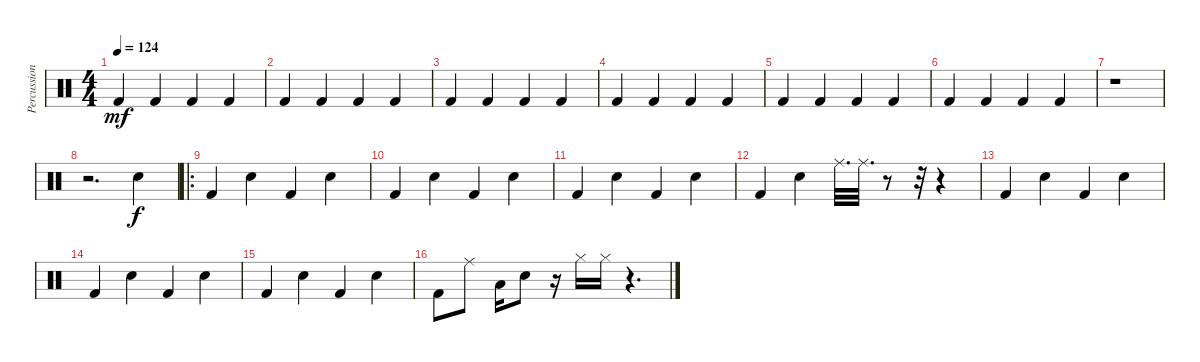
\track ("Percussion" "Percussion") {instrument percussion}
\staff {score}
\articulation defaults
\ts (4 4)
\tempo 124
\clef neutral
\ks c "Kick (hit) 2".4{dy mf} "Kick (hit) 2".4 "Kick (hit) 2".4 "Kick (hit) 2".4
|
"Kick (hit) 2".4 "Kick (hit) 2".4 "Kick (hit) 2".4 "Kick (hit) 2".4 |
"Kick (hit) 2".4 "Kick (hit) 2".4 "Kick (hit) 2".4 "Kick (hit) 2".4 |
"Kick (hit) 2".4 "Kick (hit) 2".4 "Kick (hit) 2".4 "Kick (hit) 2".4 |
"Kick (hit) 2".4 "Kick (hit) 2".4 "Kick (hit) 2".4 "Kick (hit) 2".4 |
"Kick (hit) 2".4 "Kick (hit) 2".4 "Kick (hit) 2".4 "Kick (hit) 2".4 |
r.1 |
r.2{d} "Snare (hit) 2".4{dy f} |
\ro "Kick (hit) 2".4 "Snare (hit) 2".4 "Kick (hit) 2".4 "Snare (hit) 2".4
|
"Kick (hit) 2".4 "Snare (hit) 2".4 "Kick (hit) 2".4 "Snare (hit) 2".4 |
"Kick (hit) 2".4 "Snare (hit) 2".4 "Kick (hit) 2".4 "Snare (hit) 2".4 |
"Kick (hit) 2".4 "Snare (hit) 2".4 "Ride (middle)".32{d} "Ride (middle)".32{d} r.8 r.32 r.4 |
"Kick (hit) 2".4 "Snare (hit) 2".4 "Kick (hit) 2".4 "Snare (hit) 2".4 |
"Kick (hit) 2".4 "Snare (hit) 2".4 "Kick (hit) 2".4 "Snare (hit) 2".4 |
"Kick (hit) 2".4 "Snare (hit) 2".4 "Kick (hit) 2".4 "Snare (hit) 2".4 |
"Kick (hit) 2".8 "Ride (middle)".8 "Low Floor Tom (hit)".16 "Snare (hit) 2".8 r.16 "Hi-Hat (closed)".16 "Hi-Hat (closed)".16 r.4{d}
